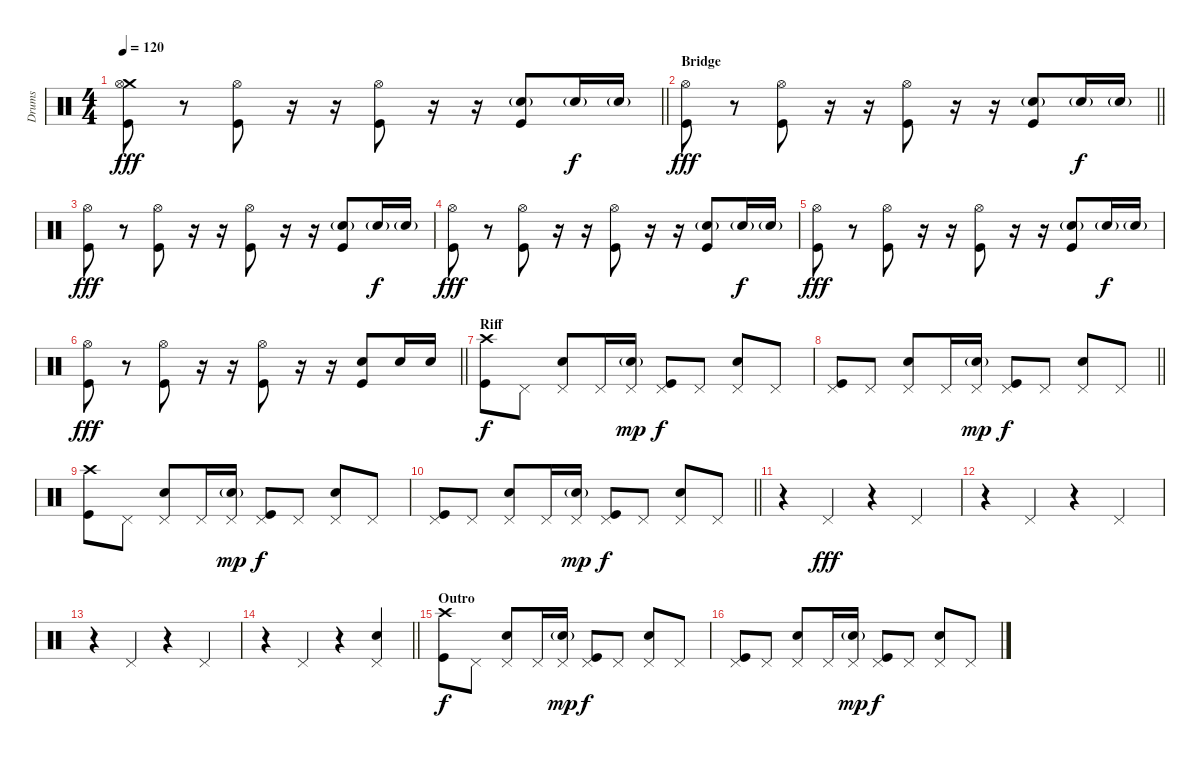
\track ("Drums" "Drums") {instrument percussion}
\staff {score}
\articulation defaults
\ts (4 4)
\tempo 120
\clef neutral
\barLineRight lightlight
\ks c
("Crash medium (hit)" "Kick (hit)" "Hi-Hat (open)").8{dy fff} r.8 ("Kick (hit)" "Hi-Hat (open)").8 r.16 r.16 ("Kick (hit)" "Hi-Hat (open)").8 r.16 r.16 ("Kick (hit)" "Snare (hit) 2"{g}).8 "Snare (hit) 2"{g}.16{dy f} "Snare (hit) 2"{g}.16 |
\section ("" "Bridge")
\barLineRight lightlight
("Kick (hit)" "Hi-Hat (open)").8{dy fff} r.8 ("Kick (hit)" "Hi-Hat (open)").8 r.16 r.16 ("Kick (hit)" "Hi-Hat (open)").8 r.16 r.16 ("Kick (hit)" "Snare (hit) 2"{g}).8 "Snare (hit) 2"{g}.16{dy f} "Snare (hit) 2"{g}.16 |
("Kick (hit)" "Hi-Hat (open)").8{dy fff} r.8 ("Kick (hit)" "Hi-Hat (open)").8 r.16 r.16 ("Kick (hit)" "Hi-Hat (open)").8 r.16 r.16 ("Kick (hit)" "Snare (hit) 2"{g}).8 "Snare (hit) 2"{g}.16{dy f} "Snare (hit) 2"{g}.16 |
("Kick (hit)" "Hi-Hat (open)").8{dy fff} r.8 ("Kick (hit)" "Hi-Hat (open)").8 r.16 r.16 ("Kick (hit)" "Hi-Hat (open)").8 r.16 r.16 ("Kick (hit)" "Snare (hit) 2"{g}).8 "Snare (hit) 2"{g}.16{dy f} "Snare (hit) 2"{g}.16 |
("Kick (hit)" "Hi-Hat (open)").8{dy fff} r.8 ("Kick (hit)" "Hi-Hat (open)").8 r.16 r.16 ("Kick (hit)" "Hi-Hat (open)").8 r.16 r.16 ("Kick (hit)" "Snare (hit) 2"{g}).8 "Snare (hit) 2"{g}.16{dy f} "Snare (hit) 2"{g}.16 |
\barLineRight lightlight
("Kick (hit)" "Hi-Hat (open)").8{dy fff} r.8 ("Kick (hit)" "Hi-Hat (open)").8 r.16 r.16 ("Kick (hit)" "Hi-Hat (open)").8 r.16 r.16 ("Kick (hit)" "Snare (hit) 2").8 "Snare (hit) 2".16 "Snare (hit) 2".16 |
\section ("" "Riff")
("Crash high (hit)" "Kick (hit)").8{dy f} "Pedal Hi-Hat (hit)".8 ("Snare (hit) 2" "Pedal Hi-Hat (hit)").8 "Pedal Hi-Hat (hit)".16 ("Snare (hit) 2"{g} "Pedal Hi-Hat (hit)").16{dy mp} ("Kick (hit)" "Pedal Hi-Hat (hit)").8{dy f} "Pedal Hi-Hat (hit)".8 ("Snare (hit) 2" "Pedal Hi-Hat (hit)").8 "Pedal Hi-Hat (hit)".8 |
\barLineRight lightlight
("Kick (hit)" "Pedal Hi-Hat (hit)").8 "Pedal Hi-Hat (hit)".8 ("Snare (hit) 2" "Pedal Hi-Hat (hit)").8 "Pedal Hi-Hat (hit)".16 ("Snare (hit) 2"{g} "Pedal Hi-Hat (hit)").16{dy mp} ("Kick (hit)" "Pedal Hi-Hat (hit)").8{dy f} "Pedal Hi-Hat (hit)".8 ("Snare (hit) 2" "Pedal Hi-Hat (hit)").8 "Pedal Hi-Hat (hit)".8 |
("Crash high (hit)" "Kick (hit)").8 "Pedal Hi-Hat (hit)".8 ("Snare (hit) 2" "Pedal Hi-Hat (hit)").8 "Pedal Hi-Hat (hit)".16 ("Snare (hit) 2"{g} "Pedal Hi-Hat (hit)").16{dy mp} ("Kick (hit)" "Pedal Hi-Hat (hit)").8{dy f} "Pedal Hi-Hat (hit)".8 ("Snare (hit) 2" "Pedal Hi-Hat (hit)").8 "Pedal Hi-Hat (hit)".8 |
\barLineRight lightlight
("Kick (hit)" "Pedal Hi-Hat (hit)").8 "Pedal Hi-Hat (hit)".8 ("Snare (hit) 2" "Pedal Hi-Hat (hit)").8 "Pedal Hi-Hat (hit)".16 ("Snare (hit) 2"{g} "Pedal Hi-Hat (hit)").16{dy mp} ("Kick (hit)" "Pedal Hi-Hat (hit)").8{dy f} "Pedal Hi-Hat (hit)".8 ("Snare (hit) 2" "Pedal Hi-Hat (hit)").8 "Pedal Hi-Hat (hit)".8 |
r.4 "Pedal Hi-Hat (hit)".4{dy fff} r.4 "Pedal Hi-Hat (hit)".4 |
r.4 "Pedal Hi-Hat (hit)".4 r.4 "Pedal Hi-Hat (hit)".4 |
r.4 "Pedal Hi-Hat (hit)".4 r.4 "Pedal Hi-Hat (hit)".4 |
\barLineRight lightlight
r.4 "Pedal Hi-Hat (hit)".4 r.4 ("Pedal Hi-Hat (hit)" "Snare (hit) 2").4 |
\section ("" "Outro")
("Crash high (hit)" "Kick (hit)").8{dy f} "Pedal Hi-Hat (hit)".8 ("Snare (hit) 2" "Pedal Hi-Hat (hit)").8 "Pedal Hi-Hat (hit)".16 ("Snare (hit) 2"{g} "Pedal Hi-Hat (hit)").16{dy mp} ("Kick (hit)" "Pedal Hi-Hat (hit)").8{dy f} "Pedal Hi-Hat (hit)".8 ("Snare (hit) 2" "Pedal Hi-Hat (hit)").8 "Pedal Hi-Hat (hit)".8 |
("Kick (hit)" "Pedal Hi-Hat (hit)").8 "Pedal Hi-Hat (hit)".8 ("Snare (hit) 2" "Pedal Hi-Hat (hit)").8 "Pedal Hi-Hat (hit)".16 ("Snare (hit) 2"{g} "Pedal Hi-Hat (hit)").16{dy mp} ("Kick (hit)" "Pedal Hi-Hat (hit)").8{dy f} "Pedal Hi-Hat (hit)".8 ("Snare (hit) 2" "Pedal Hi-Hat (hit)").8 "Pedal Hi-Hat (hit)".8
